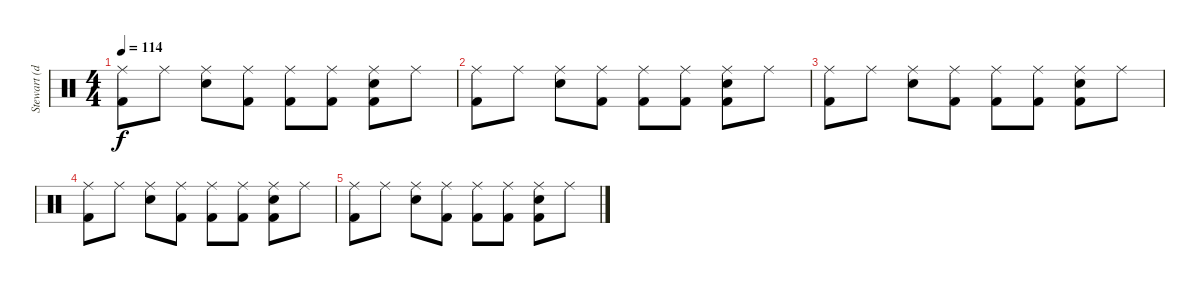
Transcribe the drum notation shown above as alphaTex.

\track ("Stewart (drums)" "Stewart (d") {instrument percussion}
\staff {score}
\articulation defaults
\ts (4 4)
\tempo 114
\clef neutral
\ks c
("Ride (middle)" "Kick (hit) 2").8{dy f volume 2} "Ride (middle)".8 ("Ride (middle)" "Snare (hit) 2").8 ("Ride (middle)" "Kick (hit) 2").8 ("Ride (middle)" "Kick (hit) 2").8 ("Ride (middle)" "Kick (hit) 2").8 ("Ride (middle)" "Kick (hit) 2" "Snare (hit) 2").8 "Ride (middle)".8 |
("Ride (middle)" "Kick (hit) 2").8 "Ride (middle)".8 ("Ride (middle)" "Snare (hit) 2").8 ("Ride (middle)" "Kick (hit) 2").8 ("Ride (middle)" "Kick (hit) 2").8 ("Ride (middle)" "Kick (hit) 2").8 ("Ride (middle)" "Kick (hit) 2" "Snare (hit) 2").8 "Ride (middle)".8 |
("Ride (middle)" "Kick (hit) 2").8 "Ride (middle)".8 ("Ride (middle)" "Snare (hit) 2").8 ("Ride (middle)" "Kick (hit) 2").8 ("Ride (middle)" "Kick (hit) 2").8 ("Ride (middle)" "Kick (hit) 2").8 ("Ride (middle)" "Kick (hit) 2" "Snare (hit) 2").8 "Ride (middle)".8 |
("Ride (middle)" "Kick (hit) 2").8 "Ride (middle)".8 ("Ride (middle)" "Snare (hit) 2").8 ("Ride (middle)" "Kick (hit) 2").8 ("Ride (middle)" "Kick (hit) 2").8 ("Ride (middle)" "Kick (hit) 2").8 ("Ride (middle)" "Kick (hit) 2" "Snare (hit) 2").8 "Ride (middle)".8 |
("Ride (middle)" "Kick (hit) 2").8 "Ride (middle)".8 ("Ride (middle)" "Snare (hit) 2").8 ("Ride (middle)" "Kick (hit) 2").8 ("Ride (middle)" "Kick (hit) 2").8 ("Ride (middle)" "Kick (hit) 2").8 ("Ride (middle)" "Kick (hit) 2" "Snare (hit) 2").8 "Ride (middle)".8
